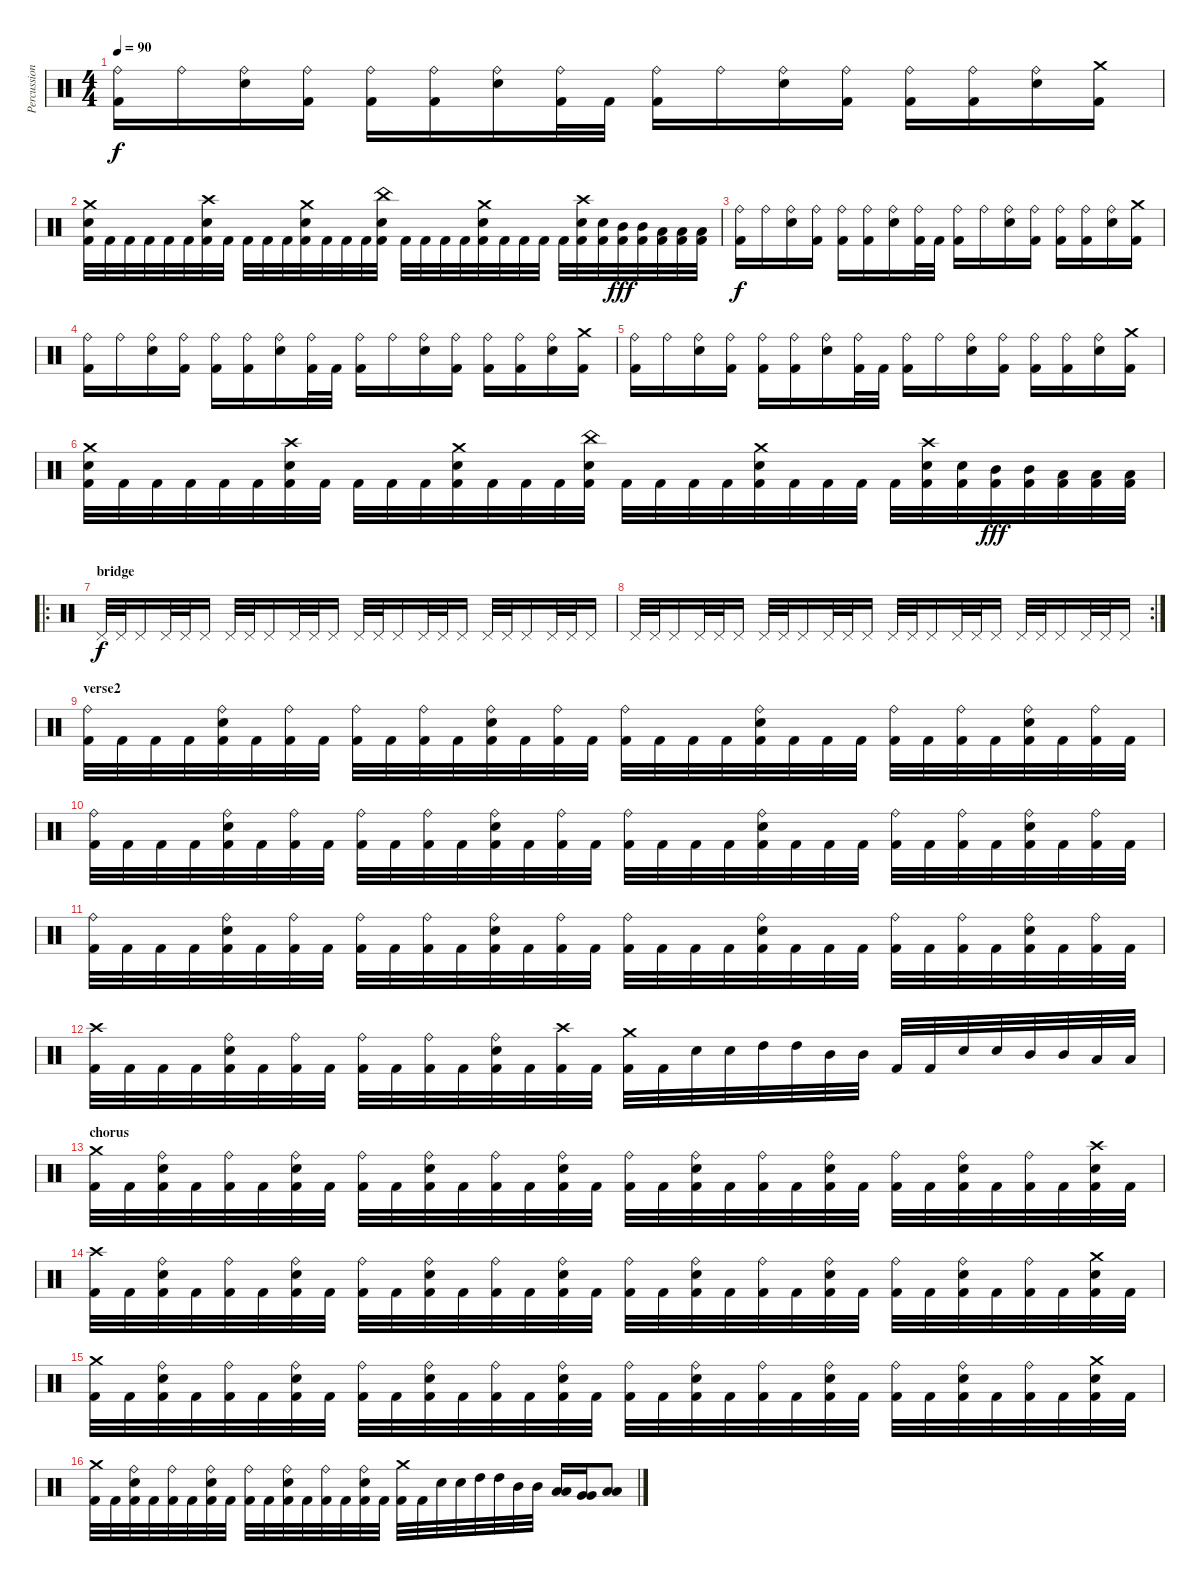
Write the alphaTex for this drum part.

\track ("Percussions" "Percussion") {instrument percussion}
\staff {score}
\articulation defaults
\ts (4 4)
\tempo 90
\clef neutral
\ks c
("Ride (bell)" "Kick (hit) 2").16{dy f} "Ride (bell)".16 ("Ride (bell)" "Electric Snare (hit)").16 ("Ride (bell)" "Kick (hit) 2").16 ("Ride (bell)" "Kick (hit) 2").16 ("Ride (bell)" "Kick (hit) 2").16 ("Ride (bell)" "Electric Snare (hit)").16 ("Ride (bell)" "Kick (hit) 2").32 "Kick (hit) 2".32 ("Ride (bell)" "Kick (hit) 2").16 "Ride (bell)".16 ("Ride (bell)" "Electric Snare (hit)").16 ("Ride (bell)" "Kick (hit) 2").16 ("Ride (bell)" "Kick (hit) 2").16 ("Ride (bell)" "Kick (hit) 2").16 ("Ride (bell)" "Electric Snare (hit)").16 ("Crash medium (hit)" "Kick (hit) 2").16 |
("Crash medium (hit)" "Electric Snare (hit)" "Kick (hit) 2").32 "Kick (hit) 2".32 "Kick (hit) 2".32 "Kick (hit) 2".32 "Kick (hit) 2".32 "Kick (hit) 2".32 ("Crash high (hit)" "Electric Snare (hit)" "Kick (hit) 2").32 "Kick (hit) 2".32 "Kick (hit) 2".32 "Kick (hit) 2".32 "Kick (hit) 2".32 ("Crash medium (hit)" "Electric Snare (hit)" "Kick (hit) 2").32 "Kick (hit) 2".32 "Kick (hit) 2".32 "Kick (hit) 2".32 ("China (hit)" "Electric Snare (hit)" "Kick (hit) 2").32 "Kick (hit) 2".32 "Kick (hit) 2".32 "Kick (hit) 2".32 "Kick (hit) 2".32 ("Crash medium (hit)" "Electric Snare (hit)" "Kick (hit) 2").32 "Kick (hit) 2".32 "Kick (hit) 2".32 "Kick (hit) 2".32 "Kick (hit) 2".32 ("Crash high (hit)" "Electric Snare (hit)" "Kick (hit) 2").32 ("Electric Snare (hit)" "Kick (hit) 2").32 ("Mid Tom (hit)" "Kick (hit) 2").32{dy fff} ("Mid Tom (hit)" "Kick (hit) 2").32 ("Low Tom (hit)" "Kick (hit) 2").32 ("Low Tom (hit)" "Kick (hit) 2").32 ("Low Tom (hit)" "Kick (hit) 2").32 |
("Ride (bell)" "Kick (hit) 2").16{dy f} "Ride (bell)".16 ("Ride (bell)" "Electric Snare (hit)").16 ("Ride (bell)" "Kick (hit) 2").16 ("Ride (bell)" "Kick (hit) 2").16 ("Ride (bell)" "Kick (hit) 2").16 ("Ride (bell)" "Electric Snare (hit)").16 ("Ride (bell)" "Kick (hit) 2").32 "Kick (hit) 2".32 ("Ride (bell)" "Kick (hit) 2").16 "Ride (bell)".16 ("Ride (bell)" "Electric Snare (hit)").16 ("Ride (bell)" "Kick (hit) 2").16 ("Ride (bell)" "Kick (hit) 2").16 ("Ride (bell)" "Kick (hit) 2").16 ("Ride (bell)" "Electric Snare (hit)").16 ("Crash medium (hit)" "Kick (hit) 2").16 |
("Ride (bell)" "Kick (hit) 2").16 "Ride (bell)".16 ("Ride (bell)" "Electric Snare (hit)").16 ("Ride (bell)" "Kick (hit) 2").16 ("Ride (bell)" "Kick (hit) 2").16 ("Ride (bell)" "Kick (hit) 2").16 ("Ride (bell)" "Electric Snare (hit)").16 ("Ride (bell)" "Kick (hit) 2").32 "Kick (hit) 2".32 ("Ride (bell)" "Kick (hit) 2").16 "Ride (bell)".16 ("Ride (bell)" "Electric Snare (hit)").16 ("Ride (bell)" "Kick (hit) 2").16 ("Ride (bell)" "Kick (hit) 2").16 ("Ride (bell)" "Kick (hit) 2").16 ("Ride (bell)" "Electric Snare (hit)").16 ("Crash medium (hit)" "Kick (hit) 2").16 |
("Ride (bell)" "Kick (hit) 2").16 "Ride (bell)".16 ("Ride (bell)" "Electric Snare (hit)").16 ("Ride (bell)" "Kick (hit) 2").16 ("Ride (bell)" "Kick (hit) 2").16 ("Ride (bell)" "Kick (hit) 2").16 ("Ride (bell)" "Electric Snare (hit)").16 ("Ride (bell)" "Kick (hit) 2").32 "Kick (hit) 2".32 ("Ride (bell)" "Kick (hit) 2").16 "Ride (bell)".16 ("Ride (bell)" "Electric Snare (hit)").16 ("Ride (bell)" "Kick (hit) 2").16 ("Ride (bell)" "Kick (hit) 2").16 ("Ride (bell)" "Kick (hit) 2").16 ("Ride (bell)" "Electric Snare (hit)").16 ("Crash medium (hit)" "Kick (hit) 2").16 |
("Crash medium (hit)" "Electric Snare (hit)" "Kick (hit) 2").32 "Kick (hit) 2".32 "Kick (hit) 2".32 "Kick (hit) 2".32 "Kick (hit) 2".32 "Kick (hit) 2".32 ("Crash high (hit)" "Electric Snare (hit)" "Kick (hit) 2").32 "Kick (hit) 2".32 "Kick (hit) 2".32 "Kick (hit) 2".32 "Kick (hit) 2".32 ("Crash medium (hit)" "Electric Snare (hit)" "Kick (hit) 2").32 "Kick (hit) 2".32 "Kick (hit) 2".32 "Kick (hit) 2".32 ("China (hit)" "Electric Snare (hit)" "Kick (hit) 2").32 "Kick (hit) 2".32 "Kick (hit) 2".32 "Kick (hit) 2".32 "Kick (hit) 2".32 ("Crash medium (hit)" "Electric Snare (hit)" "Kick (hit) 2").32 "Kick (hit) 2".32 "Kick (hit) 2".32 "Kick (hit) 2".32 "Kick (hit) 2".32 ("Crash high (hit)" "Electric Snare (hit)" "Kick (hit) 2").32 ("Electric Snare (hit)" "Kick (hit) 2").32 ("Mid Tom (hit)" "Kick (hit) 2").32{dy fff} ("Mid Tom (hit)" "Kick (hit) 2").32 ("Low Tom (hit)" "Kick (hit) 2").32 ("Low Tom (hit)" "Kick (hit) 2").32 ("Low Tom (hit)" "Kick (hit) 2").32 |
\ro
\section ("" "bridge")
"Pedal Hi-Hat (hit)".32{dy f} "Pedal Hi-Hat (hit)".32 "Pedal Hi-Hat (hit)".16 "Pedal Hi-Hat (hit)".32 "Pedal Hi-Hat (hit)".32 "Pedal Hi-Hat (hit)".16 "Pedal Hi-Hat (hit)".32 "Pedal Hi-Hat (hit)".32 "Pedal Hi-Hat (hit)".16 "Pedal Hi-Hat (hit)".32 "Pedal Hi-Hat (hit)".32 "Pedal Hi-Hat (hit)".16 "Pedal Hi-Hat (hit)".32 "Pedal Hi-Hat (hit)".32 "Pedal Hi-Hat (hit)".16 "Pedal Hi-Hat (hit)".32 "Pedal Hi-Hat (hit)".32 "Pedal Hi-Hat (hit)".16 "Pedal Hi-Hat (hit)".32 "Pedal Hi-Hat (hit)".32 "Pedal Hi-Hat (hit)".16 "Pedal Hi-Hat (hit)".32 "Pedal Hi-Hat (hit)".32 "Pedal Hi-Hat (hit)".16 |
\rc 2 "Pedal Hi-Hat (hit)".32 "Pedal Hi-Hat (hit)".32 "Pedal Hi-Hat (hit)".16 "Pedal Hi-Hat (hit)".32 "Pedal Hi-Hat (hit)".32 "Pedal Hi-Hat (hit)".16 "Pedal Hi-Hat (hit)".32 "Pedal Hi-Hat (hit)".32 "Pedal Hi-Hat (hit)".16 "Pedal Hi-Hat (hit)".32 "Pedal Hi-Hat (hit)".32 "Pedal Hi-Hat (hit)".16 "Pedal Hi-Hat (hit)".32 "Pedal Hi-Hat (hit)".32 "Pedal Hi-Hat (hit)".16 "Pedal Hi-Hat (hit)".32 "Pedal Hi-Hat (hit)".32 "Pedal Hi-Hat (hit)".16 "Pedal Hi-Hat (hit)".32 "Pedal Hi-Hat (hit)".32 "Pedal Hi-Hat (hit)".16 "Pedal Hi-Hat (hit)".32 "Pedal Hi-Hat (hit)".32 "Pedal Hi-Hat (hit)".16
|
\section ("" "verse2")
("Ride (bell)" "Kick (hit) 2").32 "Kick (hit) 2".32 "Kick (hit) 2".32 "Kick (hit) 2".32 ("Ride (bell)" "Electric Snare (hit)" "Kick (hit) 2").32 "Kick (hit) 2".32 ("Ride (bell)" "Kick (hit) 2").32 "Kick (hit) 2".32 ("Ride (bell)" "Kick (hit) 2").32 "Kick (hit) 2".32 ("Ride (bell)" "Kick (hit) 2").32 "Kick (hit) 2".32 ("Ride (bell)" "Electric Snare (hit)" "Kick (hit) 2").32 "Kick (hit) 2".32 ("Ride (bell)" "Kick (hit) 2").32 "Kick (hit) 2".32 ("Ride (bell)" "Kick (hit) 2").32 "Kick (hit) 2".32 "Kick (hit) 2".32 "Kick (hit) 2".32 ("Ride (bell)" "Electric Snare (hit)" "Kick (hit) 2").32 "Kick (hit) 2".32 "Kick (hit) 2".32 "Kick (hit) 2".32 ("Ride (bell)" "Kick (hit) 2").32 "Kick (hit) 2".32 ("Ride (bell)" "Kick (hit) 2").32 "Kick (hit) 2".32 ("Ride (bell)" "Electric Snare (hit)" "Kick (hit) 2").32 "Kick (hit) 2".32 ("Ride (bell)" "Kick (hit) 2").32 "Kick (hit) 2".32 |
("Ride (bell)" "Kick (hit) 2").32 "Kick (hit) 2".32 "Kick (hit) 2".32 "Kick (hit) 2".32 ("Ride (bell)" "Electric Snare (hit)" "Kick (hit) 2").32 "Kick (hit) 2".32 ("Ride (bell)" "Kick (hit) 2").32 "Kick (hit) 2".32 ("Ride (bell)" "Kick (hit) 2").32 "Kick (hit) 2".32 ("Ride (bell)" "Kick (hit) 2").32 "Kick (hit) 2".32 ("Ride (bell)" "Electric Snare (hit)" "Kick (hit) 2").32 "Kick (hit) 2".32 ("Ride (bell)" "Kick (hit) 2").32 "Kick (hit) 2".32 ("Ride (bell)" "Kick (hit) 2").32 "Kick (hit) 2".32 "Kick (hit) 2".32 "Kick (hit) 2".32 ("Ride (bell)" "Electric Snare (hit)" "Kick (hit) 2").32 "Kick (hit) 2".32 "Kick (hit) 2".32 "Kick (hit) 2".32 ("Ride (bell)" "Kick (hit) 2").32 "Kick (hit) 2".32 ("Ride (bell)" "Kick (hit) 2").32 "Kick (hit) 2".32 ("Ride (bell)" "Electric Snare (hit)" "Kick (hit) 2").32 "Kick (hit) 2".32 ("Ride (bell)" "Kick (hit) 2").32 "Kick (hit) 2".32 |
("Ride (bell)" "Kick (hit) 2").32 "Kick (hit) 2".32 "Kick (hit) 2".32 "Kick (hit) 2".32 ("Ride (bell)" "Electric Snare (hit)" "Kick (hit) 2").32 "Kick (hit) 2".32 ("Ride (bell)" "Kick (hit) 2").32 "Kick (hit) 2".32 ("Ride (bell)" "Kick (hit) 2").32 "Kick (hit) 2".32 ("Ride (bell)" "Kick (hit) 2").32 "Kick (hit) 2".32 ("Ride (bell)" "Electric Snare (hit)" "Kick (hit) 2").32 "Kick (hit) 2".32 ("Ride (bell)" "Kick (hit) 2").32 "Kick (hit) 2".32 ("Ride (bell)" "Kick (hit) 2").32 "Kick (hit) 2".32 "Kick (hit) 2".32 "Kick (hit) 2".32 ("Ride (bell)" "Electric Snare (hit)" "Kick (hit) 2").32 "Kick (hit) 2".32 "Kick (hit) 2".32 "Kick (hit) 2".32 ("Ride (bell)" "Kick (hit) 2").32 "Kick (hit) 2".32 ("Ride (bell)" "Kick (hit) 2").32 "Kick (hit) 2".32 ("Ride (bell)" "Electric Snare (hit)" "Kick (hit) 2").32 "Kick (hit) 2".32 ("Ride (bell)" "Kick (hit) 2").32 "Kick (hit) 2".32 |
("Crash high (hit)" "Kick (hit) 2").32 "Kick (hit) 2".32 "Kick (hit) 2".32 "Kick (hit) 2".32 ("Ride (bell)" "Electric Snare (hit)" "Kick (hit) 2").32 "Kick (hit) 2".32 ("Ride (bell)" "Kick (hit) 2").32 "Kick (hit) 2".32 ("Ride (bell)" "Kick (hit) 2").32 "Kick (hit) 2".32 ("Ride (bell)" "Kick (hit) 2").32 "Kick (hit) 2".32 ("Ride (bell)" "Electric Snare (hit)" "Kick (hit) 2").32 "Kick (hit) 2".32 ("Crash high (hit)" "Kick (hit) 2").32 "Kick (hit) 2".32 ("Crash medium (hit)" "Kick (hit) 2").32 "Kick (hit) 2".32 "Electric Snare (hit)".32 "Electric Snare (hit)".32 "High Tom (hit)".32 "High Tom (hit)".32 "Mid Tom (hit)".32 "Mid Tom (hit)".32 "Kick (hit) 2".32 "Kick (hit) 2".32 "Electric Snare (hit)".32 "Electric Snare (hit)".32 "Mid Tom (hit)".32 "Mid Tom (hit)".32 "Low Tom (hit)".32 "Low Tom (hit)".32 |
\section ("" "chorus")
("Crash medium (hit)" "Kick (hit) 2").32 "Kick (hit) 2".32 ("Ride (bell)" "Electric Snare (hit)" "Kick (hit) 2").32 "Kick (hit) 2".32 ("Ride (bell)" "Kick (hit) 2").32 "Kick (hit) 2".32 ("Ride (bell)" "Electric Snare (hit)" "Kick (hit) 2").32 "Kick (hit) 2".32 ("Ride (bell)" "Kick (hit) 2").32 "Kick (hit) 2".32 ("Ride (bell)" "Electric Snare (hit)" "Kick (hit) 2").32 "Kick (hit) 2".32 ("Ride (bell)" "Kick (hit) 2").32 "Kick (hit) 2".32 ("Ride (bell)" "Electric Snare (hit)" "Kick (hit) 2").32 "Kick (hit) 2".32 ("Ride (bell)" "Kick (hit) 2").32 "Kick (hit) 2".32 ("Ride (bell)" "Electric Snare (hit)" "Kick (hit) 2").32 "Kick (hit) 2".32 ("Ride (bell)" "Kick (hit) 2").32 "Kick (hit) 2".32 ("Ride (bell)" "Electric Snare (hit)" "Kick (hit) 2").32 "Kick (hit) 2".32 ("Ride (bell)" "Kick (hit) 2").32 "Kick (hit) 2".32 ("Ride (bell)" "Electric Snare (hit)" "Kick (hit) 2").32 "Kick (hit) 2".32 ("Ride (bell)" "Kick (hit) 2").32 "Kick (hit) 2".32 ("Crash high (hit)" "Electric Snare (hit)" "Kick (hit) 2").32 "Kick (hit) 2".32 |
("Crash high (hit)" "Kick (hit) 2").32 "Kick (hit) 2".32 ("Ride (bell)" "Electric Snare (hit)" "Kick (hit) 2").32 "Kick (hit) 2".32 ("Ride (bell)" "Kick (hit) 2").32 "Kick (hit) 2".32 ("Ride (bell)" "Electric Snare (hit)" "Kick (hit) 2").32 "Kick (hit) 2".32 ("Ride (bell)" "Kick (hit) 2").32 "Kick (hit) 2".32 ("Ride (bell)" "Electric Snare (hit)" "Kick (hit) 2").32 "Kick (hit) 2".32 ("Ride (bell)" "Kick (hit) 2").32 "Kick (hit) 2".32 ("Ride (bell)" "Electric Snare (hit)" "Kick (hit) 2").32 "Kick (hit) 2".32 ("Ride (bell)" "Kick (hit) 2").32 "Kick (hit) 2".32 ("Ride (bell)" "Electric Snare (hit)" "Kick (hit) 2").32 "Kick (hit) 2".32 ("Ride (bell)" "Kick (hit) 2").32 "Kick (hit) 2".32 ("Ride (bell)" "Electric Snare (hit)" "Kick (hit) 2").32 "Kick (hit) 2".32 ("Ride (bell)" "Kick (hit) 2").32 "Kick (hit) 2".32 ("Ride (bell)" "Electric Snare (hit)" "Kick (hit) 2").32 "Kick (hit) 2".32 ("Ride (bell)" "Kick (hit) 2").32 "Kick (hit) 2".32 ("Crash medium (hit)" "Electric Snare (hit)" "Kick (hit) 2").32 "Kick (hit) 2".32 |
("Crash medium (hit)" "Kick (hit) 2").32 "Kick (hit) 2".32 ("Ride (bell)" "Electric Snare (hit)" "Kick (hit) 2").32 "Kick (hit) 2".32 ("Ride (bell)" "Kick (hit) 2").32 "Kick (hit) 2".32 ("Ride (bell)" "Electric Snare (hit)" "Kick (hit) 2").32 "Kick (hit) 2".32 ("Ride (bell)" "Kick (hit) 2").32 "Kick (hit) 2".32 ("Ride (bell)" "Electric Snare (hit)" "Kick (hit) 2").32 "Kick (hit) 2".32 ("Ride (bell)" "Kick (hit) 2").32 "Kick (hit) 2".32 ("Ride (bell)" "Electric Snare (hit)" "Kick (hit) 2").32 "Kick (hit) 2".32 ("Ride (bell)" "Kick (hit) 2").32 "Kick (hit) 2".32 ("Ride (bell)" "Electric Snare (hit)" "Kick (hit) 2").32 "Kick (hit) 2".32 ("Ride (bell)" "Kick (hit) 2").32 "Kick (hit) 2".32 ("Ride (bell)" "Electric Snare (hit)" "Kick (hit) 2").32 "Kick (hit) 2".32 ("Ride (bell)" "Kick (hit) 2").32 "Kick (hit) 2".32 ("Ride (bell)" "Electric Snare (hit)" "Kick (hit) 2").32 "Kick (hit) 2".32 ("Ride (bell)" "Kick (hit) 2").32 "Kick (hit) 2".32 ("Crash medium (hit)" "Electric Snare (hit)" "Kick (hit) 2").32 "Kick (hit) 2".32 |
("Crash medium (hit)" "Kick (hit) 2").32 "Kick (hit) 2".32 ("Ride (bell)" "Electric Snare (hit)" "Kick (hit) 2").32 "Kick (hit) 2".32 ("Ride (bell)" "Kick (hit) 2").32 "Kick (hit) 2".32 ("Ride (bell)" "Electric Snare (hit)" "Kick (hit) 2").32 "Kick (hit) 2".32 ("Ride (bell)" "Kick (hit) 2").32 "Kick (hit) 2".32 ("Ride (bell)" "Electric Snare (hit)" "Kick (hit) 2").32 "Kick (hit) 2".32 ("Ride (bell)" "Kick (hit) 2").32 "Kick (hit) 2".32 ("Ride (bell)" "Electric Snare (hit)" "Kick (hit) 2").32 "Kick (hit) 2".32 ("Crash medium (hit)" "Kick (hit) 2").32 "Kick (hit) 2".32 "Electric Snare (hit)".32 "Electric Snare (hit)".32 "High Tom (hit)".32 "High Tom (hit)".32 "Mid Tom (hit)".32 "Mid Tom (hit)".32 ("Low Tom (hit)" "Low Tom (hit)").16 ("Very Low Tom (hit)" "Very Low Tom (hit)").16 ("Low Tom (hit)" "Low Tom (hit)").8
